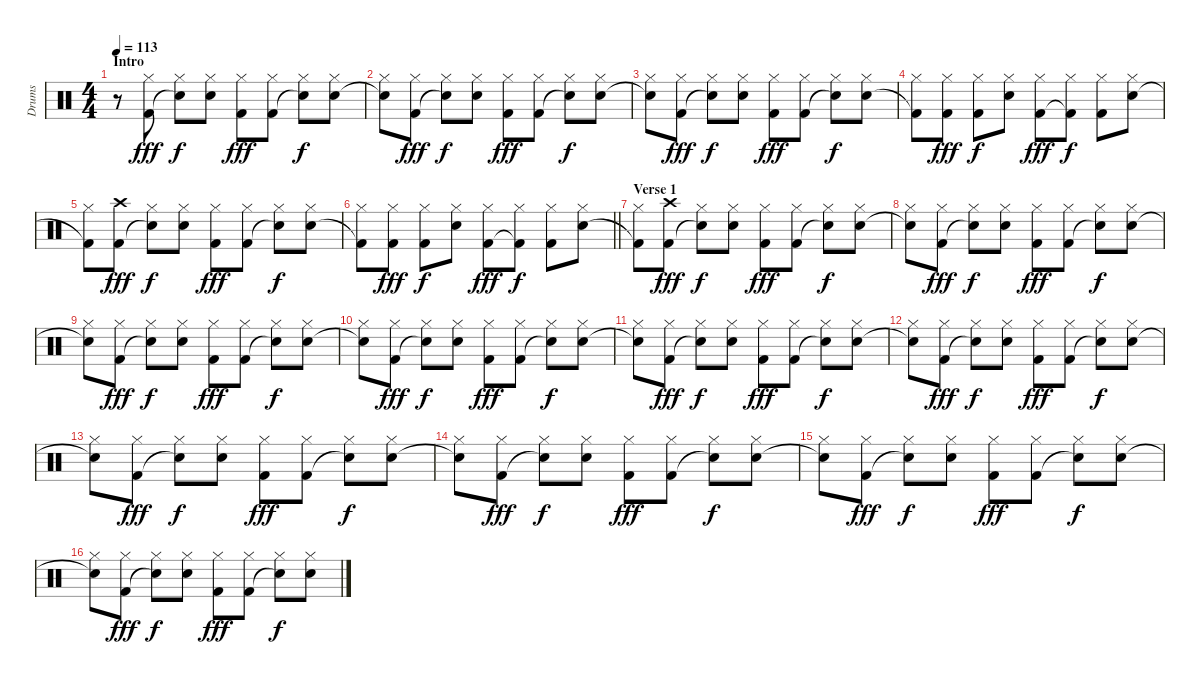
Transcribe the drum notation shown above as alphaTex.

\track ("Drums" "Drums") {instrument percussion}
\staff {score}
\articulation defaults
\ts (4 4)
\section ("" "Intro")
\tempo 113
\clef neutral
\ks c
r.8{dy fff} ("Kick (hit) 2" "Hi-Hat (closed)").8 ("Snare (hit)"{t} "Hi-Hat (closed)").8{dy f} ("Snare (hit) 2" "Hi-Hat (closed)").8 ("Kick (hit) 2" "Hi-Hat (closed)").8{dy fff} ("Kick (hit) 2" "Hi-Hat (closed)").8 ("Snare (hit)"{t} "Hi-Hat (closed)").8{dy f} ("Snare (hit) 2" "Hi-Hat (closed)").8 |
("Snare (hit)"{t} "Hi-Hat (closed)").8 ("Kick (hit) 2" "Hi-Hat (closed)").8{dy fff} ("Snare (hit)"{t} "Hi-Hat (closed)").8{dy f} ("Snare (hit) 2" "Hi-Hat (closed)").8 ("Kick (hit) 2" "Hi-Hat (closed)").8{dy fff} ("Kick (hit) 2" "Hi-Hat (closed)").8 ("Snare (hit)"{t} "Hi-Hat (closed)").8{dy f} ("Snare (hit) 2" "Hi-Hat (closed)").8 |
("Snare (hit)"{t} "Hi-Hat (closed)").8 ("Kick (hit) 2" "Hi-Hat (closed)").8{dy fff} ("Snare (hit)"{t} "Hi-Hat (closed)").8{dy f} ("Snare (hit) 2" "Hi-Hat (closed)").8 ("Kick (hit) 2" "Hi-Hat (closed)").8{dy fff} ("Kick (hit) 2" "Hi-Hat (closed)").8 ("Snare (hit)"{t} "Hi-Hat (closed)").8{dy f} ("Snare (hit) 2" "Hi-Hat (closed)").8 |
("Kick (hit) 2"{t} "Hi-Hat (closed)").8 ("Kick (hit) 2" "Hi-Hat (closed)").8{dy fff} ("Kick (hit) 2" "Hi-Hat (closed)").8{dy f} ("Snare (hit) 2" "Hi-Hat (closed)").8 ("Kick (hit) 2" "Hi-Hat (closed)").8{dy fff} ("Kick (hit) 2"{t} "Hi-Hat (closed)").8{dy f} ("Kick (hit) 2" "Hi-Hat (closed)").8 ("Snare (hit) 2" "Hi-Hat (closed)").8 |
("Kick (hit) 2"{t} "Hi-Hat (closed)").8 ("Kick (hit) 2" "Crash high (hit)").8{dy fff} ("Snare (hit)"{t} "Hi-Hat (closed)").8{dy f} ("Snare (hit) 2" "Hi-Hat (closed)").8 ("Kick (hit) 2" "Hi-Hat (closed)").8{dy fff} ("Kick (hit) 2" "Hi-Hat (closed)").8 ("Snare (hit)"{t} "Hi-Hat (closed)").8{dy f} ("Snare (hit) 2" "Hi-Hat (closed)").8 |
\barLineRight lightlight
("Kick (hit) 2"{t} "Hi-Hat (closed)").8 ("Kick (hit) 2" "Hi-Hat (closed)").8{dy fff} ("Kick (hit) 2" "Hi-Hat (closed)").8{dy f} ("Snare (hit) 2" "Hi-Hat (closed)").8 ("Kick (hit) 2" "Hi-Hat (closed)").8{dy fff} ("Kick (hit) 2"{t} "Hi-Hat (closed)").8{dy f} ("Kick (hit) 2" "Hi-Hat (closed)").8 ("Snare (hit) 2" "Hi-Hat (closed)").8 |
\section ("" "Verse 1")
("Kick (hit) 2"{t} "Hi-Hat (closed)").8 ("Kick (hit) 2" "Crash high (hit)").8{dy fff} ("Snare (hit)"{t} "Hi-Hat (closed)").8{dy f} ("Snare (hit) 2" "Hi-Hat (closed)").8 ("Kick (hit) 2" "Hi-Hat (closed)").8{dy fff} ("Kick (hit) 2" "Hi-Hat (closed)").8 ("Snare (hit)"{t} "Hi-Hat (closed)").8{dy f} ("Snare (hit) 2" "Hi-Hat (closed)").8 |
("Snare (hit)"{t} "Hi-Hat (closed)").8 ("Kick (hit) 2" "Hi-Hat (closed)").8{dy fff} ("Snare (hit)"{t} "Hi-Hat (closed)").8{dy f} ("Snare (hit) 2" "Hi-Hat (closed)").8 ("Kick (hit) 2" "Hi-Hat (closed)").8{dy fff} ("Kick (hit) 2" "Hi-Hat (closed)").8 ("Snare (hit)"{t} "Hi-Hat (closed)").8{dy f} ("Snare (hit) 2" "Hi-Hat (closed)").8 |
("Snare (hit)"{t} "Hi-Hat (closed)").8 ("Kick (hit) 2" "Hi-Hat (closed)").8{dy fff} ("Snare (hit)"{t} "Hi-Hat (closed)").8{dy f} ("Snare (hit) 2" "Hi-Hat (closed)").8 ("Kick (hit) 2" "Hi-Hat (closed)").8{dy fff} ("Kick (hit) 2" "Hi-Hat (closed)").8 ("Snare (hit)"{t} "Hi-Hat (closed)").8{dy f} ("Snare (hit) 2" "Hi-Hat (closed)").8 |
("Snare (hit)"{t} "Hi-Hat (closed)").8 ("Kick (hit) 2" "Hi-Hat (closed)").8{dy fff} ("Snare (hit)"{t} "Hi-Hat (closed)").8{dy f} ("Snare (hit) 2" "Hi-Hat (closed)").8 ("Kick (hit) 2" "Hi-Hat (closed)").8{dy fff} ("Kick (hit) 2" "Hi-Hat (closed)").8 ("Snare (hit)"{t} "Hi-Hat (closed)").8{dy f} ("Snare (hit) 2" "Hi-Hat (closed)").8 |
("Snare (hit)"{t} "Hi-Hat (closed)").8 ("Kick (hit) 2" "Hi-Hat (closed)").8{dy fff} ("Snare (hit)"{t} "Hi-Hat (closed)").8{dy f} ("Snare (hit) 2" "Hi-Hat (closed)").8 ("Kick (hit) 2" "Hi-Hat (closed)").8{dy fff} ("Kick (hit) 2" "Hi-Hat (closed)").8 ("Snare (hit)"{t} "Hi-Hat (closed)").8{dy f} ("Snare (hit) 2" "Hi-Hat (closed)").8 |
("Snare (hit)"{t} "Hi-Hat (closed)").8 ("Kick (hit) 2" "Hi-Hat (closed)").8{dy fff} ("Snare (hit)"{t} "Hi-Hat (closed)").8{dy f} ("Snare (hit) 2" "Hi-Hat (closed)").8 ("Kick (hit) 2" "Hi-Hat (closed)").8{dy fff} ("Kick (hit) 2" "Hi-Hat (closed)").8 ("Snare (hit)"{t} "Hi-Hat (closed)").8{dy f} ("Snare (hit) 2" "Hi-Hat (closed)").8 |
("Snare (hit)"{t} "Hi-Hat (closed)").8 ("Kick (hit) 2" "Hi-Hat (closed)").8{dy fff} ("Snare (hit)"{t} "Hi-Hat (closed)").8{dy f} ("Snare (hit) 2" "Hi-Hat (closed)").8 ("Kick (hit) 2" "Hi-Hat (closed)").8{dy fff} ("Kick (hit) 2" "Hi-Hat (closed)").8 ("Snare (hit)"{t} "Hi-Hat (closed)").8{dy f} ("Snare (hit) 2" "Hi-Hat (closed)").8 |
("Snare (hit)"{t} "Hi-Hat (closed)").8 ("Kick (hit) 2" "Hi-Hat (closed)").8{dy fff} ("Snare (hit)"{t} "Hi-Hat (closed)").8{dy f} ("Snare (hit) 2" "Hi-Hat (closed)").8 ("Kick (hit) 2" "Hi-Hat (closed)").8{dy fff} ("Kick (hit) 2" "Hi-Hat (closed)").8 ("Snare (hit)"{t} "Hi-Hat (closed)").8{dy f} ("Snare (hit) 2" "Hi-Hat (closed)").8 |
("Snare (hit)"{t} "Hi-Hat (closed)").8 ("Kick (hit) 2" "Hi-Hat (closed)").8{dy fff} ("Snare (hit)"{t} "Hi-Hat (closed)").8{dy f} ("Snare (hit) 2" "Hi-Hat (closed)").8 ("Kick (hit) 2" "Hi-Hat (closed)").8{dy fff} ("Kick (hit) 2" "Hi-Hat (closed)").8 ("Snare (hit)"{t} "Hi-Hat (closed)").8{dy f} ("Snare (hit) 2" "Hi-Hat (closed)").8 |
("Snare (hit)"{t} "Hi-Hat (closed)").8 ("Kick (hit) 2" "Hi-Hat (closed)").8{dy fff} ("Snare (hit)"{t} "Hi-Hat (closed)").8{dy f} ("Snare (hit) 2" "Hi-Hat (closed)").8 ("Kick (hit) 2" "Hi-Hat (closed)").8{dy fff} ("Kick (hit) 2" "Hi-Hat (closed)").8 ("Snare (hit)"{t} "Hi-Hat (closed)").8{dy f} ("Snare (hit) 2" "Hi-Hat (closed)").8
